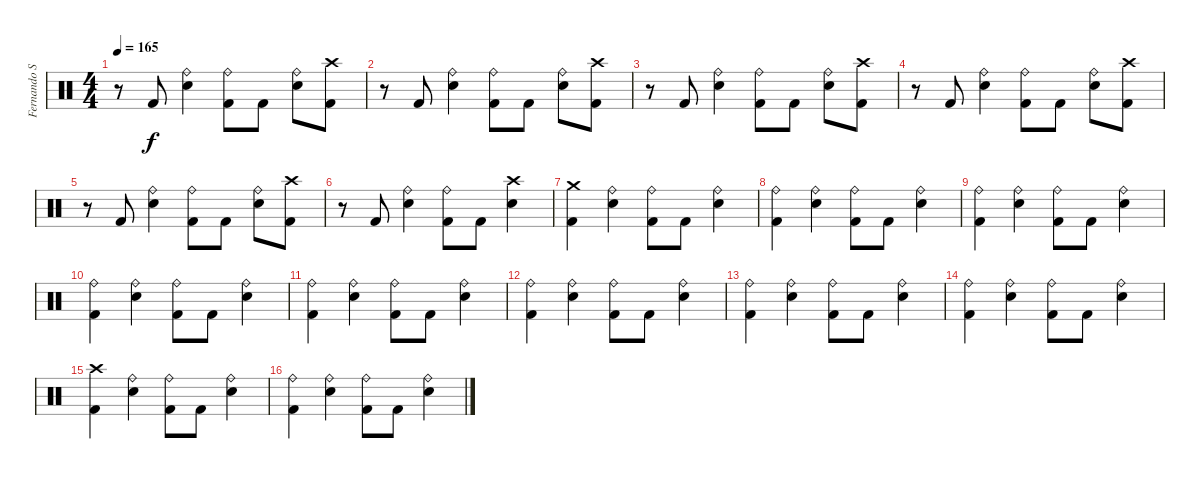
\track ("Fernando Scarcella" "Fernando S") {instrument percussion}
\staff {score}
\articulation defaults
\ts (4 4)
\tempo 165
\clef neutral
\ks c
r.8{dy f} "Kick (hit) 2".8 ("Ride (bell)" "Snare (hit) 2").4 ("Ride (bell)" "Kick (hit) 2").8 "Kick (hit) 2".8 ("Ride (bell)" "Snare (hit) 2").8 ("Crash high (hit)" "Kick (hit) 2").8 |
r.8 "Kick (hit) 2".8 ("Ride (bell)" "Snare (hit) 2").4 ("Ride (bell)" "Kick (hit) 2").8 "Kick (hit) 2".8 ("Ride (bell)" "Snare (hit) 2").8 ("Crash high (hit)" "Kick (hit) 2").8 |
r.8 "Kick (hit) 2".8 ("Ride (bell)" "Snare (hit) 2").4 ("Ride (bell)" "Kick (hit) 2").8 "Kick (hit) 2".8 ("Ride (bell)" "Snare (hit) 2").8 ("Crash high (hit)" "Kick (hit) 2").8 |
r.8 "Kick (hit) 2".8 ("Ride (bell)" "Snare (hit) 2").4 ("Ride (bell)" "Kick (hit) 2").8 "Kick (hit) 2".8 ("Ride (bell)" "Snare (hit) 2").8 ("Crash high (hit)" "Kick (hit) 2").8 |
r.8 "Kick (hit) 2".8 ("Ride (bell)" "Snare (hit) 2").4 ("Ride (bell)" "Kick (hit) 2").8 "Kick (hit) 2".8 ("Ride (bell)" "Snare (hit) 2").8 ("Crash high (hit)" "Kick (hit) 2").8 |
r.8 "Kick (hit) 2".8 ("Ride (bell)" "Snare (hit) 2").4 ("Ride (bell)" "Kick (hit) 2").8 "Kick (hit) 2".8 ("Crash high (hit)" "Snare (hit) 2").4 |
("Crash medium (hit)" "Kick (hit) 2").4 ("Ride (bell)" "Snare (hit) 2").4 ("Ride (bell)" "Kick (hit) 2").8 "Kick (hit) 2".8 ("Ride (bell)" "Snare (hit) 2").4 |
("Ride (bell)" "Kick (hit) 2").4 ("Ride (bell)" "Snare (hit) 2").4 ("Ride (bell)" "Kick (hit) 2").8 "Kick (hit) 2".8 ("Ride (bell)" "Snare (hit) 2").4 |
("Ride (bell)" "Kick (hit) 2").4 ("Ride (bell)" "Snare (hit) 2").4 ("Ride (bell)" "Kick (hit) 2").8 "Kick (hit) 2".8 ("Ride (bell)" "Snare (hit) 2").4 |
("Ride (bell)" "Kick (hit) 2").4 ("Ride (bell)" "Snare (hit) 2").4 ("Ride (bell)" "Kick (hit) 2").8 "Kick (hit) 2".8 ("Ride (bell)" "Snare (hit) 2").4 |
("Ride (bell)" "Kick (hit) 2").4 ("Ride (bell)" "Snare (hit) 2").4 ("Ride (bell)" "Kick (hit) 2").8 "Kick (hit) 2".8 ("Ride (bell)" "Snare (hit) 2").4 |
("Ride (bell)" "Kick (hit) 2").4 ("Ride (bell)" "Snare (hit) 2").4 ("Ride (bell)" "Kick (hit) 2").8 "Kick (hit) 2".8 ("Ride (bell)" "Snare (hit) 2").4 |
("Ride (bell)" "Kick (hit) 2").4 ("Ride (bell)" "Snare (hit) 2").4 ("Ride (bell)" "Kick (hit) 2").8 "Kick (hit) 2".8 ("Ride (bell)" "Snare (hit) 2").4 |
("Ride (bell)" "Kick (hit) 2").4 ("Ride (bell)" "Snare (hit) 2").4 ("Ride (bell)" "Kick (hit) 2").8 "Kick (hit) 2".8 ("Ride (bell)" "Snare (hit) 2").4 |
("Crash high (hit)" "Kick (hit) 2").4 ("Ride (bell)" "Snare (hit) 2").4 ("Ride (bell)" "Kick (hit) 2").8 "Kick (hit) 2".8 ("Ride (bell)" "Snare (hit) 2").4 |
("Ride (bell)" "Kick (hit) 2").4 ("Ride (bell)" "Snare (hit) 2").4 ("Ride (bell)" "Kick (hit) 2").8 "Kick (hit) 2".8 ("Ride (bell)" "Snare (hit) 2").4
